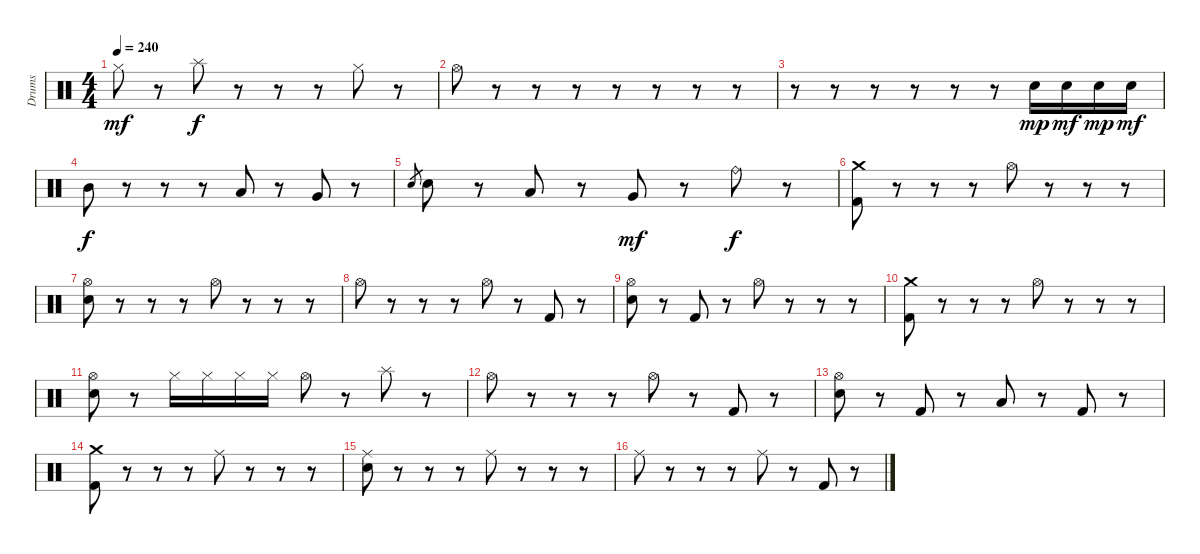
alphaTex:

\track ("Drums" "Drums") {instrument percussion}
\staff
\articulation defaults
\ts (4 4)
\tempo 240
\clef neutral
\ks c "Hi-Hat (closed)".8{dy mf}
r.8 "Splash (hit)".8{dy f} r.8 r.8 r.8 "Hi-Hat (closed)".8 r.8 |
"Hi-Hat (open)".8 r.8 r.8 r.8 r.8 r.8 r.8 r.8 |
r.8 r.8 r.8 r.8 r.8 r.8 "Electric Snare (hit)".16{dy mp} "Electric Snare (hit)".16{dy mf} "Electric Snare (hit)".16{dy mp} "Electric Snare (hit)".16{dy mf} |
"Mid Tom (hit)".8{dy f} r.8 r.8 r.8 "Low Tom (hit)".8 r.8 "Very Low Tom (hit)".8 r.8 |
"Electric Snare (hit)".8{gr} "Electric Snare (hit)".8 r.8 "Low Tom (hit)".8 r.8 "Very Low Tom (hit)".8{dy mf} r.8 "Ride (bell)".8{dy f} r.8 |
("Crash medium (hit)" "Kick (hit) 2").8 r.8 r.8 r.8 "Hi-Hat (open)".8 r.8 r.8 r.8 |
("Hi-Hat (open)" "Electric Snare (hit)").8 r.8 r.8 r.8 "Hi-Hat (open)".8 r.8 r.8 r.8 |
"Hi-Hat (open)".8 r.8 r.8 r.8 "Hi-Hat (open)".8 r.8 "Kick (hit) 2".8 r.8 |
("Hi-Hat (open)" "Electric Snare (hit)").8 r.8 "Kick (hit) 2".8 r.8 "Hi-Hat (open)".8 r.8 r.8 r.8 |
("Crash medium (hit)" "Kick (hit) 2").8 r.8 r.8 r.8 "Hi-Hat (open)".8 r.8 r.8 r.8 |
("Hi-Hat (open)" "Electric Snare (hit)").8 r.8 "Hi-Hat (closed)".16 "Hi-Hat (closed)".16 "Hi-Hat (closed)".16 "Hi-Hat (closed)".16 "Hi-Hat (open)".8 r.8 "Splash (hit)".8 r.8 |
"Hi-Hat (open)".8 r.8 r.8 r.8 "Hi-Hat (open)".8 r.8 "Kick (hit) 2".8 r.8 |
("Hi-Hat (open)" "Electric Snare (hit)").8 r.8 "Kick (hit) 2".8 r.8 "Low Tom (hit)".8 r.8 "Kick (hit) 2".8 r.8 |
("Crash medium (hit)" "Kick (hit) 2").8 r.8 r.8 r.8 "Ride (middle)".8 r.8 r.8 r.8 |
("Ride (middle)" "Electric Snare (hit)").8 r.8 r.8 r.8 "Ride (middle)".8 r.8 r.8 r.8 |
"Ride (middle)".8 r.8 r.8 r.8 "Ride (middle)".8 r.8 "Kick (hit) 2".8 r.8
